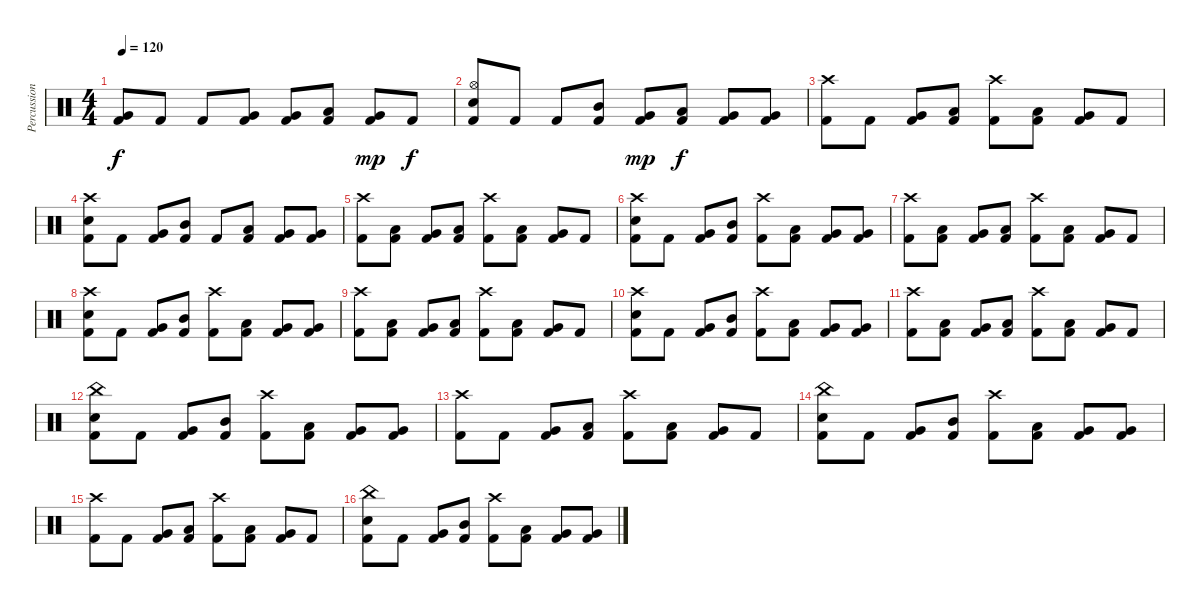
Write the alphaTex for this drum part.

\track ("Percussion" "Percussion") {instrument percussion}
\staff {score}
\articulation defaults
\ts (4 4)
\tempo 120
\clef neutral
\ks c
("Very Low Tom (hit)" "Kick (hit) 2").8{dy f} "Kick (hit) 2".8 "Kick (hit) 2".8 ("Very Low Tom (hit)" "Kick (hit) 2").8 ("Very Low Tom (hit)" "Kick (hit) 2").8 ("Low Tom (hit)" "Kick (hit) 2").8 ("Very Low Tom (hit)" "Kick (hit) 2").8{dy mp} "Kick (hit) 2".8{dy f} |
("Hi-Hat (open)" "Electric Snare (hit)" "Kick (hit) 2").8 "Kick (hit) 2".8 "Kick (hit) 2".8 ("Mid Tom (hit)" "Kick (hit) 2").8 ("Very Low Tom (hit)" "Kick (hit) 2").8{dy mp} ("Low Tom (hit)" "Kick (hit) 2").8{dy f} ("Very Low Tom (hit)" "Kick (hit) 2").8 ("Very Low Tom (hit)" "Kick (hit) 2").8 |
("Crash high (hit)" "Kick (hit) 2").8 "Kick (hit) 2".8 ("Very Low Tom (hit)" "Kick (hit) 2").8 ("Low Tom (hit)" "Kick (hit) 2").8 ("Crash high (hit)" "Kick (hit) 2").8 ("Low Tom (hit)" "Kick (hit) 2").8 ("Very Low Tom (hit)" "Kick (hit) 2").8 "Kick (hit) 2".8 |
("Crash high (hit)" "Electric Snare (hit)" "Kick (hit) 2").8 "Kick (hit) 2".8 ("Very Low Tom (hit)" "Kick (hit) 2").8 ("Mid Tom (hit)" "Kick (hit) 2").8 "Kick (hit) 2".8 ("Low Tom (hit)" "Kick (hit) 2").8 ("Very Low Tom (hit)" "Kick (hit) 2").8 ("Very Low Tom (hit)" "Kick (hit) 2").8 |
("Crash high (hit)" "Kick (hit) 2").8 ("Low Tom (hit)" "Kick (hit) 2").8 ("Very Low Tom (hit)" "Kick (hit) 2").8 ("Low Tom (hit)" "Kick (hit) 2").8 ("Crash high (hit)" "Kick (hit) 2").8 ("Low Tom (hit)" "Kick (hit) 2").8 ("Very Low Tom (hit)" "Kick (hit) 2").8 "Kick (hit) 2".8 |
("Crash high (hit)" "Electric Snare (hit)" "Kick (hit) 2").8 "Kick (hit) 2".8 ("Very Low Tom (hit)" "Kick (hit) 2").8 ("Mid Tom (hit)" "Kick (hit) 2").8 ("Crash high (hit)" "Kick (hit) 2").8 ("Low Tom (hit)" "Kick (hit) 2").8 ("Very Low Tom (hit)" "Kick (hit) 2").8 ("Very Low Tom (hit)" "Kick (hit) 2").8 |
("Crash high (hit)" "Kick (hit) 2").8 ("Low Tom (hit)" "Kick (hit) 2").8 ("Very Low Tom (hit)" "Kick (hit) 2").8 ("Low Tom (hit)" "Kick (hit) 2").8 ("Crash high (hit)" "Kick (hit) 2").8 ("Low Tom (hit)" "Kick (hit) 2").8 ("Very Low Tom (hit)" "Kick (hit) 2").8 "Kick (hit) 2".8 |
("Crash high (hit)" "Electric Snare (hit)" "Kick (hit) 2").8 "Kick (hit) 2".8 ("Very Low Tom (hit)" "Kick (hit) 2").8 ("Mid Tom (hit)" "Kick (hit) 2").8 ("Crash high (hit)" "Kick (hit) 2").8 ("Low Tom (hit)" "Kick (hit) 2").8 ("Very Low Tom (hit)" "Kick (hit) 2").8 ("Very Low Tom (hit)" "Kick (hit) 2").8 |
("Crash high (hit)" "Kick (hit) 2").8 ("Low Tom (hit)" "Kick (hit) 2").8 ("Very Low Tom (hit)" "Kick (hit) 2").8 ("Low Tom (hit)" "Kick (hit) 2").8 ("Crash high (hit)" "Kick (hit) 2").8 ("Low Tom (hit)" "Kick (hit) 2").8 ("Very Low Tom (hit)" "Kick (hit) 2").8 "Kick (hit) 2".8 |
("Crash high (hit)" "Electric Snare (hit)" "Kick (hit) 2").8 "Kick (hit) 2".8 ("Very Low Tom (hit)" "Kick (hit) 2").8 ("Mid Tom (hit)" "Kick (hit) 2").8 ("Crash high (hit)" "Kick (hit) 2").8 ("Low Tom (hit)" "Kick (hit) 2").8 ("Very Low Tom (hit)" "Kick (hit) 2").8 ("Very Low Tom (hit)" "Kick (hit) 2").8 |
("Crash high (hit)" "Kick (hit) 2").8 ("Low Tom (hit)" "Kick (hit) 2").8 ("Very Low Tom (hit)" "Kick (hit) 2").8 ("Low Tom (hit)" "Kick (hit) 2").8 ("Crash high (hit)" "Kick (hit) 2").8 ("Low Tom (hit)" "Kick (hit) 2").8 ("Very Low Tom (hit)" "Kick (hit) 2").8 "Kick (hit) 2".8 |
("China (hit)" "Electric Snare (hit)" "Kick (hit) 2").8 "Kick (hit) 2".8 ("Very Low Tom (hit)" "Kick (hit) 2").8 ("Mid Tom (hit)" "Kick (hit) 2").8 ("Crash high (hit)" "Kick (hit) 2").8 ("Low Tom (hit)" "Kick (hit) 2").8 ("Very Low Tom (hit)" "Kick (hit) 2").8 ("Very Low Tom (hit)" "Kick (hit) 2").8 |
("Crash high (hit)" "Kick (hit) 2").8 "Kick (hit) 2".8 ("Very Low Tom (hit)" "Kick (hit) 2").8 ("Low Tom (hit)" "Kick (hit) 2").8 ("Crash high (hit)" "Kick (hit) 2").8 ("Low Tom (hit)" "Kick (hit) 2").8 ("Very Low Tom (hit)" "Kick (hit) 2").8 "Kick (hit) 2".8 |
("China (hit)" "Electric Snare (hit)" "Kick (hit) 2").8 "Kick (hit) 2".8 ("Very Low Tom (hit)" "Kick (hit) 2").8 ("Mid Tom (hit)" "Kick (hit) 2").8 ("Crash high (hit)" "Kick (hit) 2").8 ("Low Tom (hit)" "Kick (hit) 2").8 ("Very Low Tom (hit)" "Kick (hit) 2").8 ("Very Low Tom (hit)" "Kick (hit) 2").8 |
("Crash high (hit)" "Kick (hit) 2").8 "Kick (hit) 2".8 ("Very Low Tom (hit)" "Kick (hit) 2").8 ("Low Tom (hit)" "Kick (hit) 2").8 ("Crash high (hit)" "Kick (hit) 2").8 ("Low Tom (hit)" "Kick (hit) 2").8 ("Very Low Tom (hit)" "Kick (hit) 2").8 "Kick (hit) 2".8 |
("China (hit)" "Electric Snare (hit)" "Kick (hit) 2").8 "Kick (hit) 2".8 ("Very Low Tom (hit)" "Kick (hit) 2").8 ("Mid Tom (hit)" "Kick (hit) 2").8 ("Crash high (hit)" "Kick (hit) 2").8 ("Low Tom (hit)" "Kick (hit) 2").8 ("Very Low Tom (hit)" "Kick (hit) 2").8 ("Very Low Tom (hit)" "Kick (hit) 2").8
